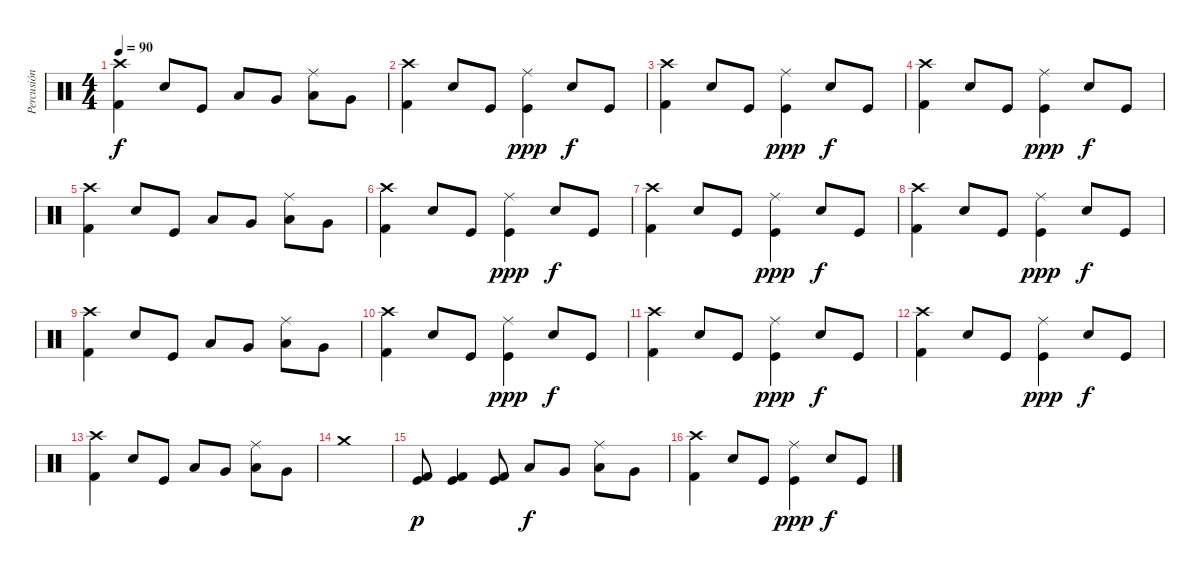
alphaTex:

\track ("Percusión" "Percusión") {instrument percussion}
\staff {score}
\articulation defaults
\ts (4 4)
\tempo 90
\clef neutral
\ks c
("Kick (hit) 2" "Crash high (hit)").4{dy f} "Snare (hit) 2".8 "Kick (hit)".8 "Low Tom (hit)".8 "Very Low Tom (hit)".8 ("Low Floor Tom (hit)" "Ride (middle)").8 "Very Low Tom (hit)".8 |
("Kick (hit) 2" "Crash high (hit)").4 "Snare (hit) 2".8 "Kick (hit)".8 ("Kick (hit)" "Ride (middle)").4{dy ppp} "Snare (hit) 2".8{dy f} "Kick (hit)".8 |
("Kick (hit) 2" "Crash high (hit)").4 "Snare (hit) 2".8 "Kick (hit)".8 ("Kick (hit)" "Ride (middle)").4{dy ppp} "Snare (hit) 2".8{dy f} "Kick (hit)".8 |
("Kick (hit) 2" "Crash high (hit)").4 "Snare (hit) 2".8 "Kick (hit)".8 ("Kick (hit)" "Ride (middle)").4{dy ppp} "Snare (hit) 2".8{dy f} "Kick (hit)".8 |
("Kick (hit) 2" "Crash high (hit)").4 "Snare (hit) 2".8 "Kick (hit)".8 "Low Tom (hit)".8 "Very Low Tom (hit)".8 ("Low Floor Tom (hit)" "Ride (middle)").8 "Very Low Tom (hit)".8 |
("Kick (hit) 2" "Crash high (hit)").4 "Snare (hit) 2".8 "Kick (hit)".8 ("Kick (hit)" "Ride (middle)").4{dy ppp} "Snare (hit) 2".8{dy f} "Kick (hit)".8 |
("Kick (hit) 2" "Crash high (hit)").4 "Snare (hit) 2".8 "Kick (hit)".8 ("Kick (hit)" "Ride (middle)").4{dy ppp} "Snare (hit) 2".8{dy f} "Kick (hit)".8 |
("Kick (hit) 2" "Crash high (hit)").4 "Snare (hit) 2".8 "Kick (hit)".8 ("Kick (hit)" "Ride (middle)").4{dy ppp} "Snare (hit) 2".8{dy f} "Kick (hit)".8 |
("Kick (hit) 2" "Crash high (hit)").4 "Snare (hit) 2".8 "Kick (hit)".8 "Low Tom (hit)".8 "Very Low Tom (hit)".8 ("Low Floor Tom (hit)" "Ride (middle)").8 "Very Low Tom (hit)".8 |
("Kick (hit) 2" "Crash high (hit)").4 "Snare (hit) 2".8 "Kick (hit)".8 ("Kick (hit)" "Ride (middle)").4{dy ppp} "Snare (hit) 2".8{dy f} "Kick (hit)".8 |
("Kick (hit) 2" "Crash high (hit)").4 "Snare (hit) 2".8 "Kick (hit)".8 ("Kick (hit)" "Ride (middle)").4{dy ppp} "Snare (hit) 2".8{dy f} "Kick (hit)".8 |
("Kick (hit) 2" "Crash high (hit)").4 "Snare (hit) 2".8 "Kick (hit)".8 ("Kick (hit)" "Ride (middle)").4{dy ppp} "Snare (hit) 2".8{dy f} "Kick (hit)".8 |
("Kick (hit) 2" "Crash high (hit)").4 "Snare (hit) 2".8 "Kick (hit)".8 "Low Tom (hit)".8 "Very Low Tom (hit)".8 ("Low Floor Tom (hit)" "Ride (middle)").8 "Very Low Tom (hit)".8 |
"Crash medium (hit)".1 |
("Kick (hit) 2" "Kick (hit)").8{dy p} ("Kick (hit) 2" "Kick (hit)").4 ("Kick (hit) 2" "Kick (hit)").8 "Low Tom (hit)".8{dy f} "Very Low Tom (hit)".8 ("Low Floor Tom (hit)" "Ride (middle)").8 "Very Low Tom (hit)".8 |
("Kick (hit) 2" "Crash high (hit)").4 "Snare (hit) 2".8 "Kick (hit)".8 ("Kick (hit)" "Ride (middle)").4{dy ppp} "Snare (hit) 2".8{dy f} "Kick (hit)".8
